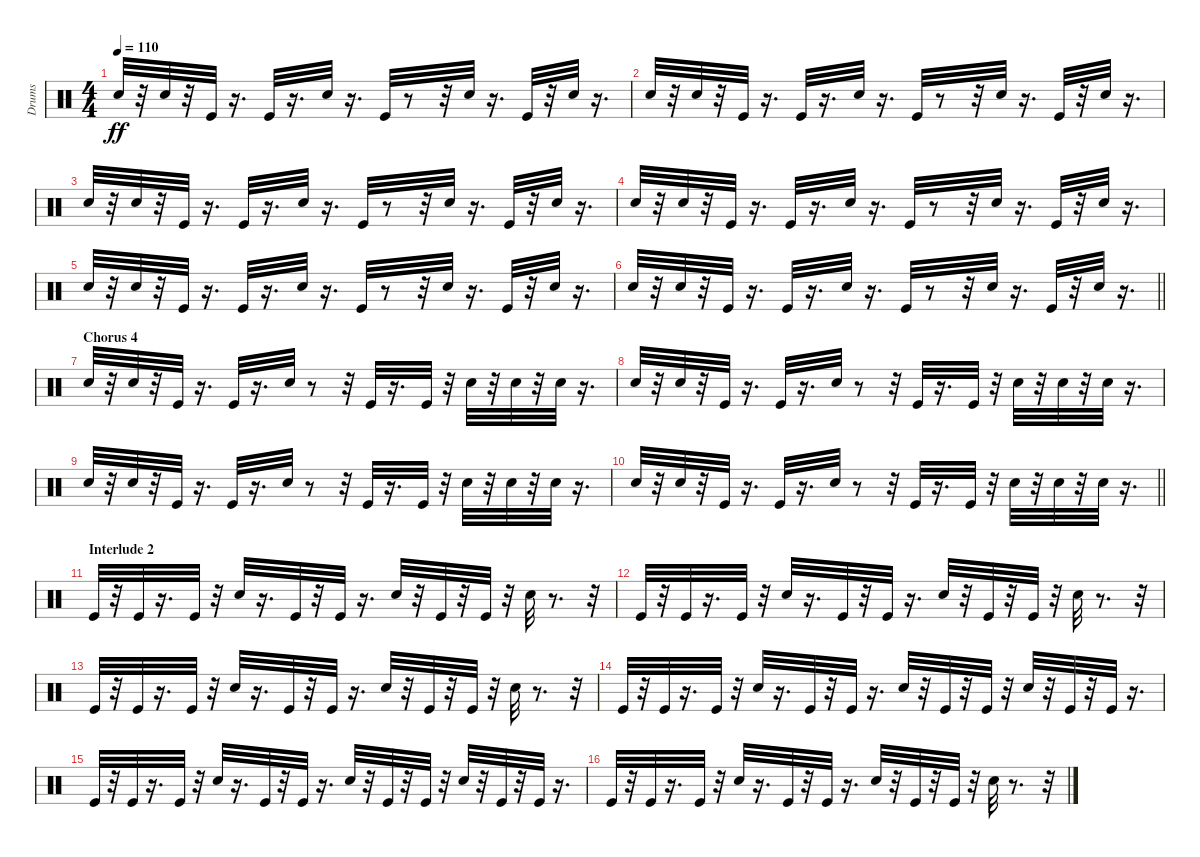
\track ("Drums" "Drums") {instrument percussion}
\staff {score}
\articulation defaults
\ts (4 4)
\tempo 110
\clef neutral
\ks c "Snare (hit) 2".32{dy ff}
r.32 "Snare (hit) 2".32 r.32 "Kick (hit)".32 r.16{d} "Kick (hit)".32 r.16{d} "Snare (hit) 2".32 r.16{d} "Kick (hit)".32 r.8 r.32 "Snare (hit) 2".32 r.16{d} "Kick (hit)".32 r.32 "Snare (hit) 2".32 r.16{d} |
"Snare (hit) 2".32 r.32 "Snare (hit) 2".32 r.32 "Kick (hit)".32 r.16{d} "Kick (hit)".32 r.16{d} "Snare (hit) 2".32 r.16{d} "Kick (hit)".32 r.8 r.32 "Snare (hit) 2".32 r.16{d} "Kick (hit)".32 r.32 "Snare (hit) 2".32 r.16{d} |
"Snare (hit) 2".32 r.32 "Snare (hit) 2".32 r.32 "Kick (hit)".32 r.16{d} "Kick (hit)".32 r.16{d} "Snare (hit) 2".32 r.16{d} "Kick (hit)".32 r.8 r.32 "Snare (hit) 2".32 r.16{d} "Kick (hit)".32 r.32 "Snare (hit) 2".32 r.16{d} |
"Snare (hit) 2".32 r.32 "Snare (hit) 2".32 r.32 "Kick (hit)".32 r.16{d} "Kick (hit)".32 r.16{d} "Snare (hit) 2".32 r.16{d} "Kick (hit)".32 r.8 r.32 "Snare (hit) 2".32 r.16{d} "Kick (hit)".32 r.32 "Snare (hit) 2".32 r.16{d} |
"Snare (hit) 2".32 r.32 "Snare (hit) 2".32 r.32 "Kick (hit)".32 r.16{d} "Kick (hit)".32 r.16{d} "Snare (hit) 2".32 r.16{d} "Kick (hit)".32 r.8 r.32 "Snare (hit) 2".32 r.16{d} "Kick (hit)".32 r.32 "Snare (hit) 2".32 r.16{d} |
\barLineRight lightlight "Snare (hit) 2".32
r.32 "Snare (hit) 2".32 r.32 "Kick (hit)".32 r.16{d} "Kick (hit)".32 r.16{d} "Snare (hit) 2".32 r.16{d} "Kick (hit)".32 r.8 r.32 "Snare (hit) 2".32 r.16{d} "Kick (hit)".32 r.32 "Snare (hit) 2".32 r.16{d} |
\section ("" "Chorus 4")
"Snare (hit) 2".32 r.32 "Snare (hit) 2".32 r.32 "Kick (hit)".32 r.16{d} "Kick (hit)".32 r.16{d} "Snare (hit) 2".32 r.8 r.32 "Kick (hit)".32 r.16{d} "Kick (hit)".32 r.32 "Snare (hit) 2".32 r.32 "Snare (hit) 2".32 r.32 "Snare (hit) 2".32 r.16{d} |
"Snare (hit) 2".32 r.32 "Snare (hit) 2".32 r.32 "Kick (hit)".32 r.16{d} "Kick (hit)".32 r.16{d} "Snare (hit) 2".32 r.8 r.32 "Kick (hit)".32 r.16{d} "Kick (hit)".32 r.32 "Snare (hit) 2".32 r.32 "Snare (hit) 2".32 r.32 "Snare (hit) 2".32 r.16{d} |
"Snare (hit) 2".32 r.32 "Snare (hit) 2".32 r.32 "Kick (hit)".32 r.16{d} "Kick (hit)".32 r.16{d} "Snare (hit) 2".32 r.8 r.32 "Kick (hit)".32 r.16{d} "Kick (hit)".32 r.32 "Snare (hit) 2".32 r.32 "Snare (hit) 2".32 r.32 "Snare (hit) 2".32 r.16{d} |
\barLineRight lightlight "Snare (hit) 2".32
r.32 "Snare (hit) 2".32 r.32 "Kick (hit)".32 r.16{d} "Kick (hit)".32 r.16{d} "Snare (hit) 2".32 r.8 r.32 "Kick (hit)".32 r.16{d} "Kick (hit)".32 r.32 "Snare (hit) 2".32 r.32 "Snare (hit) 2".32 r.32 "Snare (hit) 2".32 r.16{d} |
\section ("" "Interlude 2")
"Kick (hit)".32 r.32 "Kick (hit)".32 r.16{d} "Kick (hit)".32 r.32 "Snare (hit) 2".32 r.16{d} "Kick (hit)".32 r.32 "Kick (hit)".32 r.16{d} "Snare (hit) 2".32 r.32 "Kick (hit)".32 r.32 "Kick (hit)".32 r.32 "Snare (hit) 2".32 r.8{d} r.32 |
"Kick (hit)".32 r.32 "Kick (hit)".32 r.16{d} "Kick (hit)".32 r.32 "Snare (hit) 2".32 r.16{d} "Kick (hit)".32 r.32 "Kick (hit)".32 r.16{d} "Snare (hit) 2".32 r.32 "Kick (hit)".32 r.32 "Kick (hit)".32 r.32 "Snare (hit) 2".32 r.8{d} r.32 |
"Kick (hit)".32 r.32 "Kick (hit)".32 r.16{d} "Kick (hit)".32 r.32 "Snare (hit) 2".32 r.16{d} "Kick (hit)".32 r.32 "Kick (hit)".32 r.16{d} "Snare (hit) 2".32 r.32 "Kick (hit)".32 r.32 "Kick (hit)".32 r.32 "Snare (hit) 2".32 r.8{d} r.32 |
"Kick (hit)".32 r.32 "Kick (hit)".32 r.16{d} "Kick (hit)".32 r.32 "Snare (hit) 2".32 r.16{d} "Kick (hit)".32 r.32 "Kick (hit)".32 r.16{d} "Snare (hit) 2".32 r.32 "Kick (hit)".32 r.32 "Kick (hit)".32 r.32 "Snare (hit) 2".32 r.32 "Kick (hit)".32 r.32 "Kick (hit)".32 r.16{d} |
"Kick (hit)".32 r.32 "Kick (hit)".32 r.16{d} "Kick (hit)".32 r.32 "Snare (hit) 2".32 r.16{d} "Kick (hit)".32 r.32 "Kick (hit)".32 r.16{d} "Snare (hit) 2".32 r.32 "Kick (hit)".32 r.32 "Kick (hit)".32 r.32 "Snare (hit) 2".32 r.32 "Kick (hit)".32 r.32 "Kick (hit)".32 r.16{d} |
"Kick (hit)".32 r.32 "Kick (hit)".32 r.16{d} "Kick (hit)".32 r.32 "Snare (hit) 2".32 r.16{d} "Kick (hit)".32 r.32 "Kick (hit)".32 r.16{d} "Snare (hit) 2".32 r.32 "Kick (hit)".32 r.32 "Kick (hit)".32 r.32 "Snare (hit) 2".32 r.8{d} r.32
